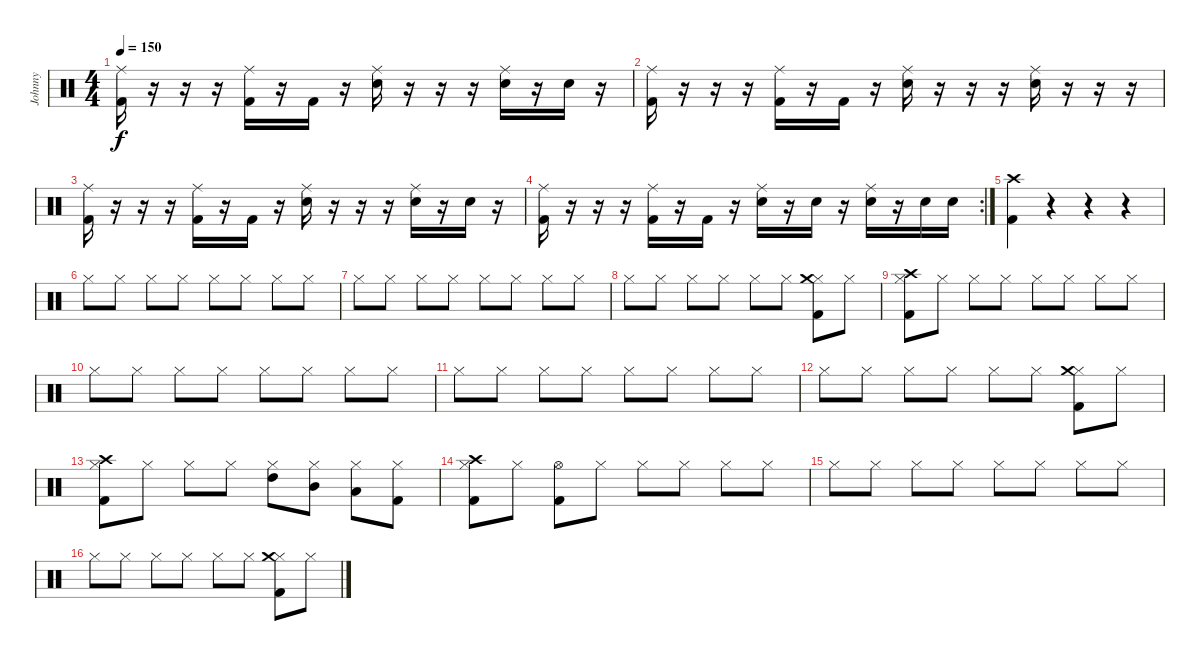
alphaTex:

\track ("Johnny" "Johnny") {instrument percussion}
\staff {score}
\articulation defaults
\ts (4 4)
\tempo 150
\clef neutral
\ks c
("Ride (middle)" "Kick (hit) 2").16{dy f} r.16 r.16 r.16 ("Ride (middle)" "Kick (hit) 2").16 r.16 "Kick (hit) 2".16 r.16 ("Ride (middle)" "Snare (hit) 2").16 r.16 r.16 r.16 ("Ride (middle)" "Snare (hit) 2").16 r.16 "Snare (hit) 2".16 r.16 |
("Ride (middle)" "Kick (hit) 2").16 r.16 r.16 r.16 ("Ride (middle)" "Kick (hit) 2").16 r.16 "Kick (hit) 2".16 r.16 ("Ride (middle)" "Snare (hit) 2").16 r.16 r.16 r.16 ("Ride (middle)" "Snare (hit) 2").16 r.16 r.16 r.16 |
("Ride (middle)" "Kick (hit) 2").16 r.16 r.16 r.16 ("Ride (middle)" "Kick (hit) 2").16 r.16 "Kick (hit) 2".16 r.16 ("Ride (middle)" "Snare (hit) 2").16 r.16 r.16 r.16 ("Ride (middle)" "Snare (hit) 2").16 r.16 "Snare (hit) 2".16 r.16 |
\rc 2
("Ride (middle)" "Kick (hit) 2").16 r.16 r.16 r.16 ("Ride (middle)" "Kick (hit) 2").16 r.16 "Kick (hit) 2".16 r.16 ("Ride (middle)" "Snare (hit) 2").16 r.16 "Snare (hit) 2".16 r.16 ("Ride (middle)" "Snare (hit) 2").16 r.16 "Snare (hit) 2".16 "Snare (hit) 2".16 |
("Crash high (hit)" "Kick (hit) 2").4 r.4 r.4{volume 0} r.4 |
"Hi-Hat (closed)".8{volume 11} "Hi-Hat (closed)".8 "Hi-Hat (closed)".8 "Hi-Hat (closed)".8 "Hi-Hat (closed)".8 "Hi-Hat (closed)".8 "Hi-Hat (closed)".8 "Hi-Hat (closed)".8 |
"Hi-Hat (closed)".8 "Hi-Hat (closed)".8 "Hi-Hat (closed)".8 "Hi-Hat (closed)".8 "Hi-Hat (closed)".8 "Hi-Hat (closed)".8 "Hi-Hat (closed)".8 "Hi-Hat (closed)".8 |
"Hi-Hat (closed)".8 "Hi-Hat (closed)".8 "Hi-Hat (closed)".8 "Hi-Hat (closed)".8 "Hi-Hat (closed)".8 "Hi-Hat (closed)".8 ("Hi-Hat (closed)" "Kick (hit) 2" "Crash medium (hit)").8 "Hi-Hat (closed)".8 |
("Hi-Hat (closed)" "Kick (hit) 2" "Crash high (hit)").8 "Hi-Hat (closed)".8 "Hi-Hat (closed)".8 "Hi-Hat (closed)".8 "Hi-Hat (closed)".8 "Hi-Hat (closed)".8 "Hi-Hat (closed)".8 "Hi-Hat (closed)".8 |
"Hi-Hat (closed)".8{volume 11} "Hi-Hat (closed)".8 "Hi-Hat (closed)".8 "Hi-Hat (closed)".8 "Hi-Hat (closed)".8 "Hi-Hat (closed)".8 "Hi-Hat (closed)".8 "Hi-Hat (closed)".8 |
"Hi-Hat (closed)".8 "Hi-Hat (closed)".8 "Hi-Hat (closed)".8 "Hi-Hat (closed)".8 "Hi-Hat (closed)".8 "Hi-Hat (closed)".8 "Hi-Hat (closed)".8 "Hi-Hat (closed)".8 |
"Hi-Hat (closed)".8 "Hi-Hat (closed)".8 "Hi-Hat (closed)".8 "Hi-Hat (closed)".8 "Hi-Hat (closed)".8 "Hi-Hat (closed)".8 ("Hi-Hat (closed)" "Kick (hit) 2" "Crash medium (hit)").8 "Hi-Hat (closed)".8 |
("Hi-Hat (closed)" "Kick (hit) 2" "Crash high (hit)").8 "Hi-Hat (closed)".8 "Hi-Hat (closed)".8 "Hi-Hat (closed)".8 ("Hi-Hat (closed)" "High Tom (hit)").8 ("Hi-Hat (closed)" "Mid Tom (hit)").8 ("Hi-Hat (closed)" "Low Tom (hit)").8 ("Hi-Hat (closed)" "Kick (hit) 2").8 |
("Hi-Hat (closed)" "Kick (hit) 2" "Crash high (hit)").8{volume 11} "Hi-Hat (closed)".8 ("Hi-Hat (open)" "Kick (hit) 2").8 "Hi-Hat (closed)".8 "Hi-Hat (closed)".8 "Hi-Hat (closed)".8 "Hi-Hat (closed)".8 "Hi-Hat (closed)".8 |
"Hi-Hat (closed)".8 "Hi-Hat (closed)".8 "Hi-Hat (closed)".8 "Hi-Hat (closed)".8 "Hi-Hat (closed)".8 "Hi-Hat (closed)".8 "Hi-Hat (closed)".8 "Hi-Hat (closed)".8 |
"Hi-Hat (closed)".8 "Hi-Hat (closed)".8 "Hi-Hat (closed)".8 "Hi-Hat (closed)".8 "Hi-Hat (closed)".8 "Hi-Hat (closed)".8 ("Hi-Hat (closed)" "Kick (hit) 2" "Crash medium (hit)").8 "Hi-Hat (closed)".8
